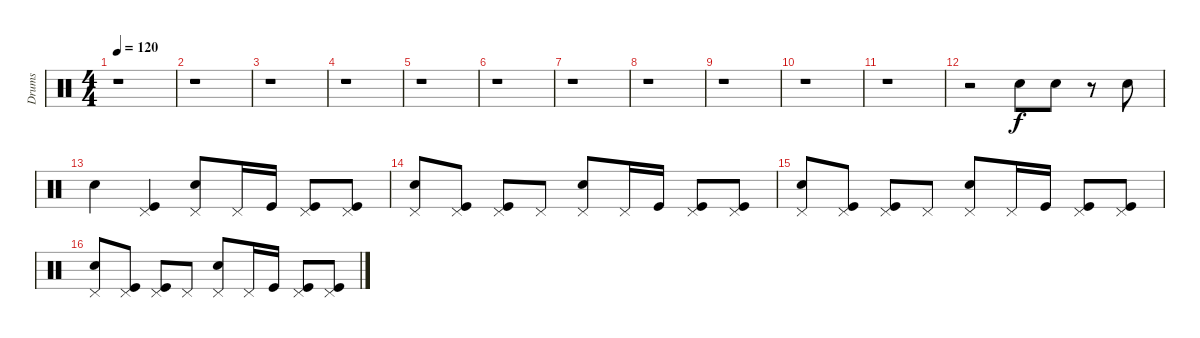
\track ("Drums" "Drums") {instrument percussion}
\staff {score}
\articulation defaults
\ts (4 4)
\tempo 120
\clef neutral
\ks c
r.1{dy f} |
r.1 |
r.1 |
r.1 |
r.1 |
r.1 |
r.1 |
r.1 |
r.1 |
r.1 |
r.1 |
r.2 "Snare (hit) 2".8 "Electric Snare (hit)".8 r.8 "Electric Snare (hit)".8 |
"Snare (hit) 2".4 ("Kick (hit)" "Pedal Hi-Hat (hit)").4 ("Snare (hit) 2" "Pedal Hi-Hat (hit)").8 "Pedal Hi-Hat (hit)".16 "Kick (hit)".16 ("Kick (hit)" "Pedal Hi-Hat (hit)").8 ("Kick (hit)" "Pedal Hi-Hat (hit)").8 |
("Snare (hit) 2" "Pedal Hi-Hat (hit)").8 ("Kick (hit)" "Pedal Hi-Hat (hit)").8 ("Kick (hit)" "Pedal Hi-Hat (hit)").8 "Pedal Hi-Hat (hit)".8 ("Snare (hit) 2" "Pedal Hi-Hat (hit)").8 "Pedal Hi-Hat (hit)".16 "Kick (hit)".16 ("Kick (hit)" "Pedal Hi-Hat (hit)").8 ("Kick (hit)" "Pedal Hi-Hat (hit)").8 |
("Snare (hit) 2" "Pedal Hi-Hat (hit)").8 ("Kick (hit)" "Pedal Hi-Hat (hit)").8 ("Kick (hit)" "Pedal Hi-Hat (hit)").8 "Pedal Hi-Hat (hit)".8 ("Snare (hit) 2" "Pedal Hi-Hat (hit)").8 "Pedal Hi-Hat (hit)".16 "Kick (hit)".16 ("Kick (hit)" "Pedal Hi-Hat (hit)").8 ("Kick (hit)" "Pedal Hi-Hat (hit)").8 |
("Snare (hit) 2" "Pedal Hi-Hat (hit)").8 ("Kick (hit)" "Pedal Hi-Hat (hit)").8 ("Kick (hit)" "Pedal Hi-Hat (hit)").8 "Pedal Hi-Hat (hit)".8 ("Snare (hit) 2" "Pedal Hi-Hat (hit)").8 "Pedal Hi-Hat (hit)".16 "Kick (hit)".16 ("Kick (hit)" "Pedal Hi-Hat (hit)").8 ("Kick (hit)" "Pedal Hi-Hat (hit)").8
